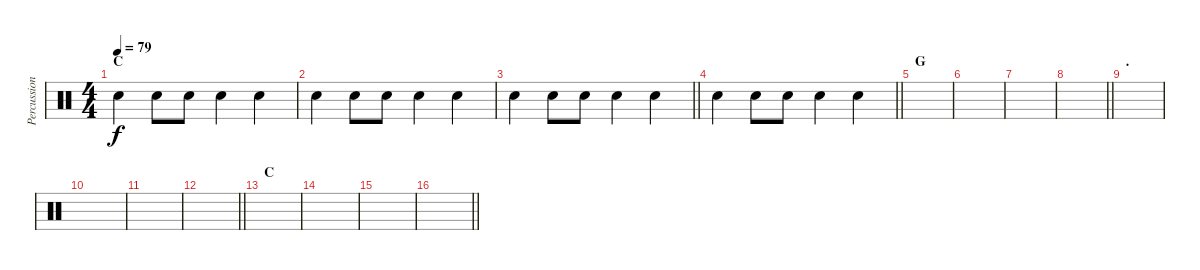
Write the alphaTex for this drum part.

\track ("Percussion" "Percussion") {instrument percussion}
\staff {score}
\articulation defaults
\ts (4 4)
\section ("" "C")
\tempo 79
\clef neutral
\ks c "Snare (hit) 2".4{dy f} "Snare (hit) 2".8 "Snare (hit) 2".8 "Snare (hit) 2".4 "Snare (hit) 2".4
|
"Snare (hit) 2".4 "Snare (hit) 2".8 "Snare (hit) 2".8 "Snare (hit) 2".4 "Snare (hit) 2".4 |
\barLineRight lightlight "Snare (hit) 2".4 "Snare (hit) 2".8 "Snare (hit) 2".8 "Snare (hit) 2".4 "Snare (hit) 2".4
|
\barLineRight lightlight "Snare (hit) 2".4 "Snare (hit) 2".8 "Snare (hit) 2".8 "Snare (hit) 2".4 "Snare (hit) 2".4
|
\section ("" "G")
|
|
|
\barLineRight lightlight
|
\section ("" ".")
|
|
|
\barLineRight lightlight
|
\section ("" "C")
|
|
|
\barLineRight lightlight
